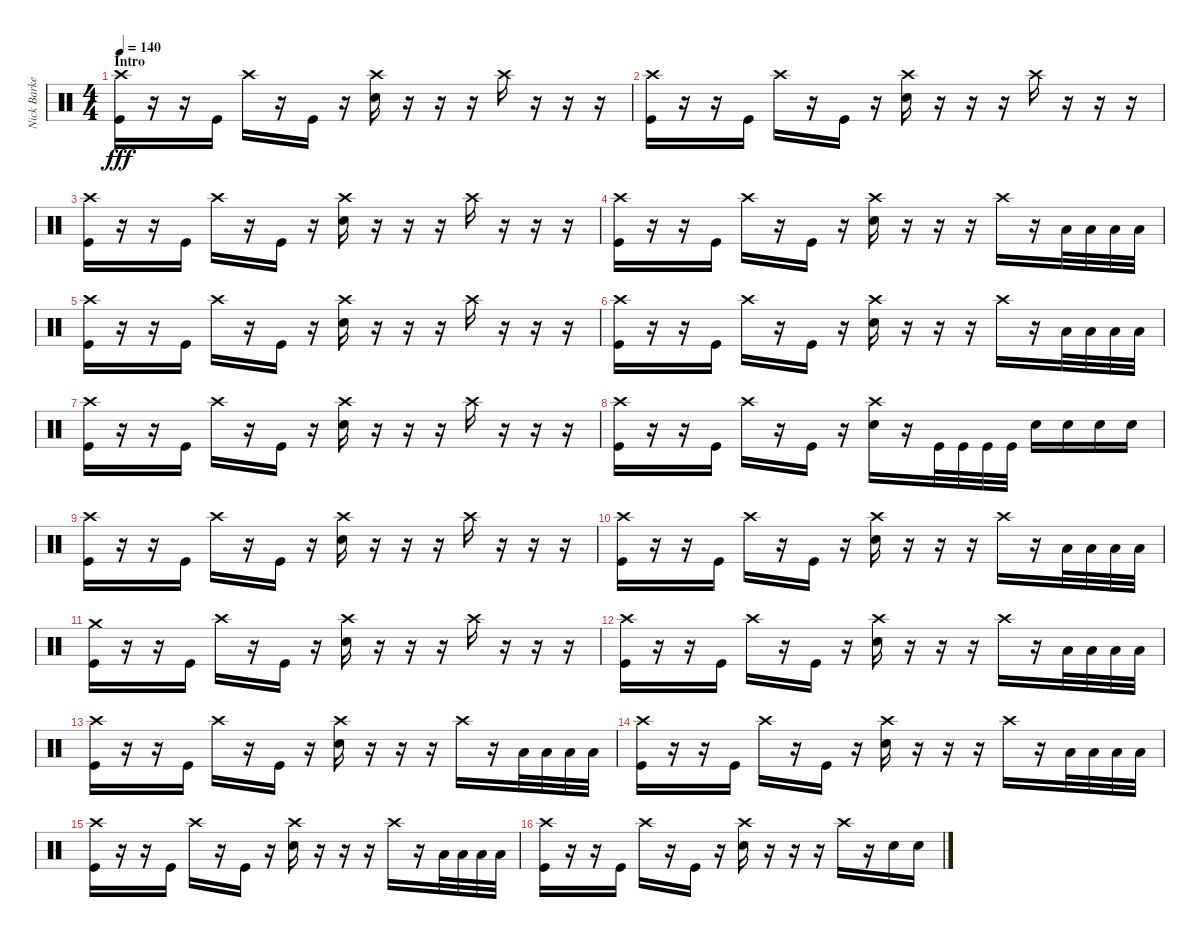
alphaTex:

\track ("Nick Barker" "Nick Barke") {instrument percussion}
\staff {score}
\articulation defaults
\ts (4 4)
\section ("" "Intro")
\tempo 140
\clef neutral
\ks c
("Crash high (hit)" "Kick (hit)").16{dy fff} r.16 r.16 "Kick (hit)".16 "Crash high (hit)".16 r.16 "Kick (hit)".16 r.16 ("Crash high (hit)" "Electric Snare (hit)").16 r.16 r.16 r.16 "Crash high (hit)".16 r.16 r.16 r.16 |
("Crash high (hit)" "Kick (hit)").16 r.16 r.16 "Kick (hit)".16 "Crash high (hit)".16 r.16 "Kick (hit)".16 r.16 ("Crash high (hit)" "Electric Snare (hit)").16 r.16 r.16 r.16 "Crash high (hit)".16 r.16 r.16 r.16 |
("Crash high (hit)" "Kick (hit)").16 r.16 r.16 "Kick (hit)".16 "Crash high (hit)".16 r.16 "Kick (hit)".16 r.16 ("Crash high (hit)" "Electric Snare (hit)").16 r.16 r.16 r.16 "Crash high (hit)".16 r.16 r.16 r.16 |
("Crash high (hit)" "Kick (hit)").16 r.16 r.16 "Kick (hit)".16 "Crash high (hit)".16 r.16 "Kick (hit)".16 r.16 ("Crash high (hit)" "Electric Snare (hit)").16 r.16 r.16 r.16 "Crash high (hit)".16 r.16 "Low Tom (hit)".32 "Low Tom (hit)".32 "Low Tom (hit)".32 "Low Tom (hit)".32 |
("Crash high (hit)" "Kick (hit)").16 r.16 r.16 "Kick (hit)".16 "Crash high (hit)".16 r.16 "Kick (hit)".16 r.16 ("Crash high (hit)" "Electric Snare (hit)").16 r.16 r.16 r.16 "Crash high (hit)".16 r.16 r.16 r.16 |
("Crash high (hit)" "Kick (hit)").16 r.16 r.16 "Kick (hit)".16 "Crash high (hit)".16 r.16 "Kick (hit)".16 r.16 ("Crash high (hit)" "Electric Snare (hit)").16 r.16 r.16 r.16 "Crash high (hit)".16 r.16 "Low Tom (hit)".32 "Low Tom (hit)".32 "Low Tom (hit)".32 "Low Tom (hit)".32 |
("Crash high (hit)" "Kick (hit)").16 r.16 r.16 "Kick (hit)".16 "Crash high (hit)".16 r.16 "Kick (hit)".16 r.16 ("Crash high (hit)" "Electric Snare (hit)").16 r.16 r.16 r.16 "Crash high (hit)".16 r.16 r.16 r.16 |
("Crash high (hit)" "Kick (hit)").16 r.16 r.16 "Kick (hit)".16 "Crash high (hit)".16 r.16 "Kick (hit)".16 r.16 ("Crash high (hit)" "Electric Snare (hit)").16 r.16 "Kick (hit)".32 "Kick (hit)".32 "Kick (hit)".32 "Kick (hit)".32 "Electric Snare (hit)".16 "Electric Snare (hit)".16 "Electric Snare (hit)".16 "Electric Snare (hit)".16 |
("Crash high (hit)" "Kick (hit)").16 r.16 r.16 "Kick (hit)".16 "Crash high (hit)".16 r.16 "Kick (hit)".16 r.16 ("Crash high (hit)" "Electric Snare (hit)").16 r.16 r.16 r.16 "Crash high (hit)".16 r.16 r.16 r.16 |
("Crash high (hit)" "Kick (hit)").16 r.16 r.16 "Kick (hit)".16 "Crash high (hit)".16 r.16 "Kick (hit)".16 r.16 ("Crash high (hit)" "Electric Snare (hit)").16 r.16 r.16 r.16 "Crash high (hit)".16 r.16 "Low Tom (hit)".32 "Low Tom (hit)".32 "Low Tom (hit)".32 "Low Tom (hit)".32 |
("Crash medium (hit)" "Kick (hit)").16 r.16 r.16 "Kick (hit)".16 "Crash high (hit)".16 r.16 "Kick (hit)".16 r.16 ("Crash high (hit)" "Electric Snare (hit)").16 r.16 r.16 r.16 "Crash high (hit)".16 r.16 r.16 r.16 |
("Crash high (hit)" "Kick (hit)").16 r.16 r.16 "Kick (hit)".16 "Crash high (hit)".16 r.16 "Kick (hit)".16 r.16 ("Crash high (hit)" "Electric Snare (hit)").16 r.16 r.16 r.16 "Crash high (hit)".16 r.16 "Low Tom (hit)".32 "Low Tom (hit)".32 "Low Tom (hit)".32 "Low Tom (hit)".32 |
("Crash high (hit)" "Kick (hit)").16 r.16 r.16 "Kick (hit)".16 "Crash high (hit)".16 r.16 "Kick (hit)".16 r.16 ("Crash high (hit)" "Electric Snare (hit)").16 r.16 r.16 r.16 "Crash high (hit)".16 r.16 "Low Tom (hit)".32 "Low Tom (hit)".32 "Low Tom (hit)".32 "Low Tom (hit)".32 |
("Crash high (hit)" "Kick (hit)").16 r.16 r.16 "Kick (hit)".16 "Crash high (hit)".16 r.16 "Kick (hit)".16 r.16 ("Crash high (hit)" "Electric Snare (hit)").16 r.16 r.16 r.16 "Crash high (hit)".16 r.16 "Low Tom (hit)".32 "Low Tom (hit)".32 "Low Tom (hit)".32 "Low Tom (hit)".32 |
("Crash high (hit)" "Kick (hit)").16 r.16 r.16 "Kick (hit)".16 "Crash high (hit)".16 r.16 "Kick (hit)".16 r.16 ("Crash high (hit)" "Electric Snare (hit)").16 r.16 r.16 r.16 "Crash high (hit)".16 r.16 "Low Tom (hit)".32 "Low Tom (hit)".32 "Low Tom (hit)".32 "Low Tom (hit)".32 |
("Crash high (hit)" "Kick (hit)").16 r.16 r.16 "Kick (hit)".16 "Crash high (hit)".16 r.16 "Kick (hit)".16 r.16 ("Crash high (hit)" "Electric Snare (hit)").16 r.16 r.16 r.16 "Crash high (hit)".16 r.16 "Electric Snare (hit)".16 "Electric Snare (hit)".16
